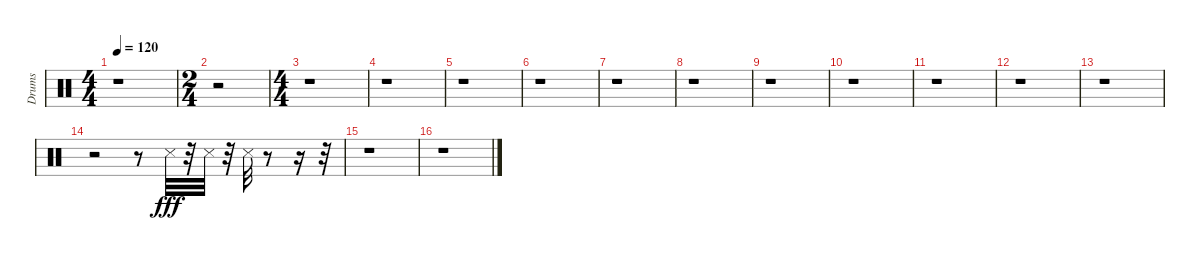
\track ("Drums" "Drums") {instrument percussion}
\staff {score}
\articulation defaults
\ts (4 4)
\tempo 120
\clef neutral
\ks c
r.1{dy fff} |
\ts (2 4)
r.2 |
\ts (4 4)
r.1 |
r.1 |
r.1 |
r.1 |
r.1 |
r.1 |
r.1 |
r.1 |
r.1 |
r.1 |
r.1 |
r.2 r.8 "Snare (side stick) 3".32 r.32 "Snare (side stick) 3".32 r.32 "Snare (side stick) 3".32 r.8 r.16 r.32 |
r.1 |
r.1
